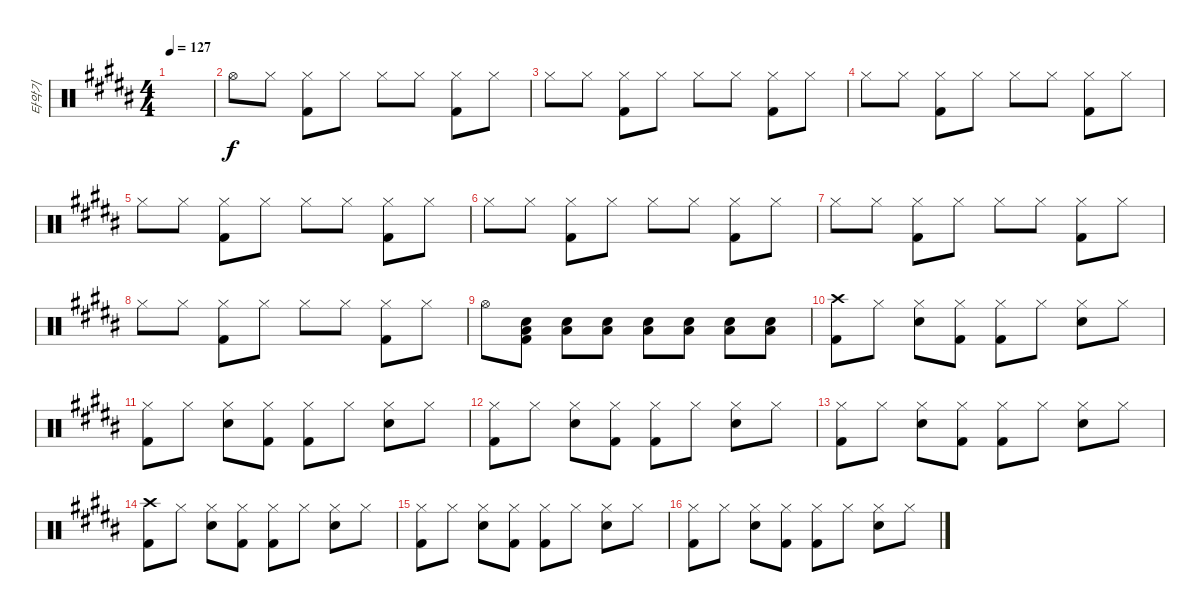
\track ("타악기" "타악기") {instrument percussion}
\staff {score}
\articulation defaults
\ts (4 4)
\tempo 127
\clef neutral
\ks b
|
"Hi-Hat (open)".8 "Hi-Hat (closed)".8 ("Hi-Hat (closed)" "Kick (hit) 2").8 "Hi-Hat (closed)".8 "Hi-Hat (closed)".8 "Hi-Hat (closed)".8 ("Hi-Hat (closed)" "Kick (hit) 2").8 "Hi-Hat (closed)".8 |
"Hi-Hat (closed)".8 "Hi-Hat (closed)".8 ("Hi-Hat (closed)" "Kick (hit) 2").8 "Hi-Hat (closed)".8 "Hi-Hat (closed)".8 "Hi-Hat (closed)".8 ("Hi-Hat (closed)" "Kick (hit) 2").8 "Hi-Hat (closed)".8 |
"Hi-Hat (closed)".8 "Hi-Hat (closed)".8 ("Hi-Hat (closed)" "Kick (hit) 2").8 "Hi-Hat (closed)".8 "Hi-Hat (closed)".8 "Hi-Hat (closed)".8 ("Hi-Hat (closed)" "Kick (hit) 2").8 "Hi-Hat (closed)".8 |
"Hi-Hat (closed)".8 "Hi-Hat (closed)".8 ("Hi-Hat (closed)" "Kick (hit) 2").8 "Hi-Hat (closed)".8 "Hi-Hat (closed)".8 "Hi-Hat (closed)".8 ("Hi-Hat (closed)" "Kick (hit) 2").8 "Hi-Hat (closed)".8 |
"Hi-Hat (closed)".8 "Hi-Hat (closed)".8 ("Hi-Hat (closed)" "Kick (hit) 2").8 "Hi-Hat (closed)".8 "Hi-Hat (closed)".8 "Hi-Hat (closed)".8 ("Hi-Hat (closed)" "Kick (hit) 2").8 "Hi-Hat (closed)".8 |
"Hi-Hat (closed)".8 "Hi-Hat (closed)".8 ("Hi-Hat (closed)" "Kick (hit) 2").8 "Hi-Hat (closed)".8 "Hi-Hat (closed)".8 "Hi-Hat (closed)".8 ("Hi-Hat (closed)" "Kick (hit) 2").8 "Hi-Hat (closed)".8 |
"Hi-Hat (closed)".8 "Hi-Hat (closed)".8 ("Hi-Hat (closed)" "Kick (hit) 2").8 "Hi-Hat (closed)".8 "Hi-Hat (closed)".8 "Hi-Hat (closed)".8 ("Hi-Hat (closed)" "Kick (hit) 2").8 "Hi-Hat (closed)".8 |
"Hi-Hat (open)".8 ("Low Floor Tom (hit)" "Electric Snare (hit)" "Kick (hit) 2").8 ("Low Floor Tom (hit)" "Electric Snare (hit)").8 ("Low Floor Tom (hit)" "Electric Snare (hit)").8 ("Low Floor Tom (hit)" "Electric Snare (hit)").8 ("Low Floor Tom (hit)" "Electric Snare (hit)").8 ("Low Floor Tom (hit)" "Electric Snare (hit)").8 ("Low Floor Tom (hit)" "Electric Snare (hit)").8 |
("Crash high (hit)" "Kick (hit) 2").8 "Hi-Hat (closed)".8 ("Hi-Hat (closed)" "Electric Snare (hit)").8 ("Hi-Hat (closed)" "Kick (hit) 2").8 ("Hi-Hat (closed)" "Kick (hit) 2").8 "Hi-Hat (closed)".8 ("Hi-Hat (closed)" "Electric Snare (hit)").8 "Hi-Hat (closed)".8 |
("Hi-Hat (closed)" "Kick (hit) 2").8 "Hi-Hat (closed)".8 ("Hi-Hat (closed)" "Electric Snare (hit)").8 ("Hi-Hat (closed)" "Kick (hit) 2").8 ("Hi-Hat (closed)" "Kick (hit) 2").8 "Hi-Hat (closed)".8 ("Hi-Hat (closed)" "Electric Snare (hit)").8 "Hi-Hat (closed)".8 |
("Hi-Hat (closed)" "Kick (hit) 2").8 "Hi-Hat (closed)".8 ("Hi-Hat (closed)" "Electric Snare (hit)").8 ("Hi-Hat (closed)" "Kick (hit) 2").8 ("Hi-Hat (closed)" "Kick (hit) 2").8 "Hi-Hat (closed)".8 ("Hi-Hat (closed)" "Electric Snare (hit)").8 "Hi-Hat (closed)".8 |
("Hi-Hat (closed)" "Kick (hit) 2").8 "Hi-Hat (closed)".8 ("Hi-Hat (closed)" "Electric Snare (hit)").8 ("Hi-Hat (closed)" "Kick (hit) 2").8 ("Hi-Hat (closed)" "Kick (hit) 2").8 "Hi-Hat (closed)".8 ("Hi-Hat (closed)" "Electric Snare (hit)").8 "Hi-Hat (closed)".8 |
("Crash high (hit)" "Kick (hit) 2").8 "Hi-Hat (closed)".8 ("Hi-Hat (closed)" "Electric Snare (hit)").8 ("Hi-Hat (closed)" "Kick (hit) 2").8 ("Hi-Hat (closed)" "Kick (hit) 2").8 "Hi-Hat (closed)".8 ("Hi-Hat (closed)" "Electric Snare (hit)").8 "Hi-Hat (closed)".8 |
("Hi-Hat (closed)" "Kick (hit) 2").8 "Hi-Hat (closed)".8 ("Hi-Hat (closed)" "Electric Snare (hit)").8 ("Hi-Hat (closed)" "Kick (hit) 2").8 ("Hi-Hat (closed)" "Kick (hit) 2").8 "Hi-Hat (closed)".8 ("Hi-Hat (closed)" "Electric Snare (hit)").8 "Hi-Hat (closed)".8 |
("Hi-Hat (closed)" "Kick (hit) 2").8 "Hi-Hat (closed)".8 ("Hi-Hat (closed)" "Electric Snare (hit)").8 ("Hi-Hat (closed)" "Kick (hit) 2").8 ("Hi-Hat (closed)" "Kick (hit) 2").8 "Hi-Hat (closed)".8 ("Hi-Hat (closed)" "Electric Snare (hit)").8 "Hi-Hat (closed)".8
